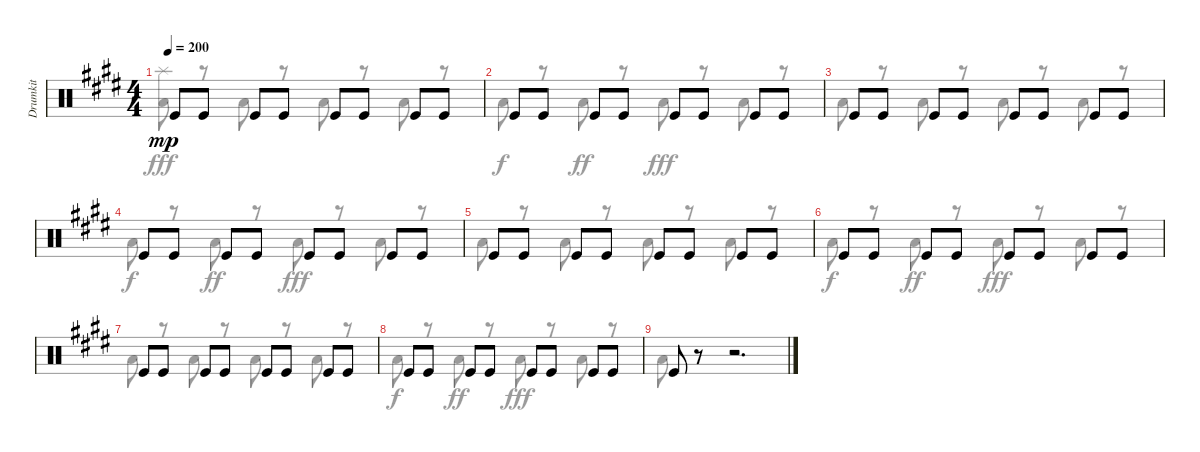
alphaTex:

\track ("Drumkit" "Drumkit") {instrument percussion}
\staff {score}
\articulation defaults
\voice
\ts (4 4)
\tempo 200
\clef neutral
\ks c#minor "Kick (hit)".8{dy mp} "Kick (hit)".8 "Kick (hit)".8 "Kick (hit)".8 "Kick (hit)".8 "Kick (hit)".8 "Kick (hit)".8 "Kick (hit)".8
|
"Kick (hit)".8 "Kick (hit)".8 "Kick (hit)".8 "Kick (hit)".8 "Kick (hit)".8 "Kick (hit)".8 "Kick (hit)".8 "Kick (hit)".8 |
"Kick (hit)".8 "Kick (hit)".8 "Kick (hit)".8 "Kick (hit)".8 "Kick (hit)".8 "Kick (hit)".8 "Kick (hit)".8 "Kick (hit)".8 |
"Kick (hit)".8 "Kick (hit)".8 "Kick (hit)".8 "Kick (hit)".8 "Kick (hit)".8 "Kick (hit)".8 "Kick (hit)".8 "Kick (hit)".8 |
"Kick (hit)".8 "Kick (hit)".8 "Kick (hit)".8 "Kick (hit)".8 "Kick (hit)".8 "Kick (hit)".8 "Kick (hit)".8 "Kick (hit)".8 |
"Kick (hit)".8 "Kick (hit)".8 "Kick (hit)".8 "Kick (hit)".8 "Kick (hit)".8 "Kick (hit)".8 "Kick (hit)".8 "Kick (hit)".8 |
"Kick (hit)".8 "Kick (hit)".8 "Kick (hit)".8 "Kick (hit)".8 "Kick (hit)".8 "Kick (hit)".8 "Kick (hit)".8 "Kick (hit)".8 |
"Kick (hit)".8 "Kick (hit)".8 "Kick (hit)".8 "Kick (hit)".8 "Kick (hit)".8 "Kick (hit)".8 "Kick (hit)".8 "Kick (hit)".8 |
"Kick (hit)".8 r.8 r.2{d}
\voice
\clef neutral
\ottava regular
\simile none
\ks c#minor
("Low Tom (hit)" "Splash (hit)").8{dy fff} r.8 "Low Floor Tom (hit)".8 r.8 "Low Tom (hit)".8 r.8 "Low Floor Tom (hit)".8 r.8 |
"Low Tom (hit)".8{dy f} r.8 "Low Tom (hit)".8{dy ff} r.8 "Low Tom (hit)".8{dy fff} r.8 "Low Floor Tom (hit)".8 r.8 |
"Low Tom (hit)".8 r.8 "Low Floor Tom (hit)".8 r.8 "Low Tom (hit)".8 r.8 "Low Floor Tom (hit)".8 r.8 |
"Low Tom (hit)".8{dy f} r.8 "Low Tom (hit)".8{dy ff} r.8 "Low Tom (hit)".8{dy fff} r.8 "Low Floor Tom (hit)".8 r.8 |
"Low Tom (hit)".8 r.8 "Low Floor Tom (hit)".8 r.8 "Low Tom (hit)".8 r.8 "Low Floor Tom (hit)".8 r.8 |
"Low Tom (hit)".8{dy f} r.8 "Low Tom (hit)".8{dy ff} r.8 "Low Tom (hit)".8{dy fff} r.8 "Low Floor Tom (hit)".8 r.8 |
"Low Tom (hit)".8 r.8 "Low Floor Tom (hit)".8 r.8 "Low Tom (hit)".8 r.8 "Low Floor Tom (hit)".8 r.8 |
"Low Tom (hit)".8{dy f} r.8 "Low Tom (hit)".8{dy ff} r.8 "Low Tom (hit)".8{dy fff} r.8 "Low Floor Tom (hit)".8 r.8 |
"Low Tom (hit)".8 r.8 r.2{d}
